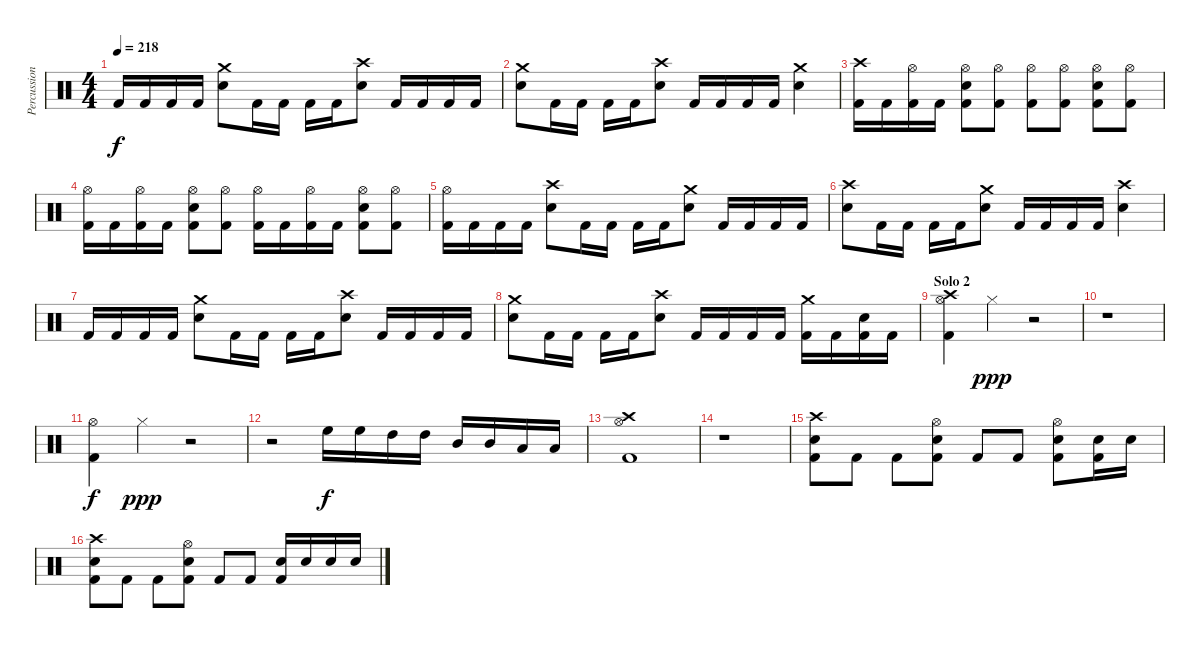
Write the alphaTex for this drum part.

\track ("Percussion" "Percussion") {instrument percussion}
\staff {score}
\articulation defaults
\ts (4 4)
\tempo 218
\clef neutral
\ks c "Kick (hit) 2".16{dy f} "Kick (hit) 2".16 "Kick (hit) 2".16 "Kick (hit) 2".16
("Crash medium (hit)" "Electric Snare (hit)").8 "Kick (hit) 2".16 "Kick (hit) 2".16 "Kick (hit) 2".16 "Kick (hit) 2".16 ("Crash high (hit)" "Electric Snare (hit)").8 "Kick (hit) 2".16 "Kick (hit) 2".16 "Kick (hit) 2".16 "Kick (hit) 2".16 |
("Crash medium (hit)" "Electric Snare (hit)").8 "Kick (hit) 2".16 "Kick (hit) 2".16 "Kick (hit) 2".16 "Kick (hit) 2".16 ("Crash high (hit)" "Electric Snare (hit)").8 "Kick (hit) 2".16 "Kick (hit) 2".16 "Kick (hit) 2".16 "Kick (hit) 2".16 ("Crash medium (hit)" "Electric Snare (hit)").4 |
("Crash high (hit)" "Kick (hit) 2").16 "Kick (hit) 2".16 ("Hi-Hat (open)" "Kick (hit) 2").16 "Kick (hit) 2".16 ("Hi-Hat (open)" "Electric Snare (hit)" "Kick (hit) 2").8 ("Hi-Hat (open)" "Kick (hit) 2").8 ("Hi-Hat (open)" "Kick (hit) 2").8 ("Hi-Hat (open)" "Kick (hit) 2").8 ("Hi-Hat (open)" "Electric Snare (hit)" "Kick (hit) 2").8 ("Hi-Hat (open)" "Kick (hit) 2").8 |
("Hi-Hat (open)" "Kick (hit) 2").16 "Kick (hit) 2".16 ("Hi-Hat (open)" "Kick (hit) 2").16 "Kick (hit) 2".16 ("Hi-Hat (open)" "Electric Snare (hit)" "Kick (hit) 2").8 ("Hi-Hat (open)" "Kick (hit) 2").8 ("Hi-Hat (open)" "Kick (hit) 2").16 "Kick (hit) 2".16 ("Hi-Hat (open)" "Kick (hit) 2").16 "Kick (hit) 2".16 ("Hi-Hat (open)" "Electric Snare (hit)" "Kick (hit) 2").8 ("Hi-Hat (open)" "Kick (hit) 2").8 |
("Hi-Hat (open)" "Kick (hit) 2").16 "Kick (hit) 2".16 "Kick (hit) 2".16 "Kick (hit) 2".16 ("Crash high (hit)" "Electric Snare (hit)").8 "Kick (hit) 2".16 "Kick (hit) 2".16 "Kick (hit) 2".16 "Kick (hit) 2".16 ("Crash medium (hit)" "Electric Snare (hit)").8 "Kick (hit) 2".16 "Kick (hit) 2".16 "Kick (hit) 2".16 "Kick (hit) 2".16 |
("Crash high (hit)" "Electric Snare (hit)").8 "Kick (hit) 2".16 "Kick (hit) 2".16 "Kick (hit) 2".16 "Kick (hit) 2".16 ("Crash medium (hit)" "Electric Snare (hit)").8 "Kick (hit) 2".16 "Kick (hit) 2".16 "Kick (hit) 2".16 "Kick (hit) 2".16 ("Crash high (hit)" "Electric Snare (hit)").4 |
"Kick (hit) 2".16 "Kick (hit) 2".16 "Kick (hit) 2".16 "Kick (hit) 2".16 ("Crash medium (hit)" "Electric Snare (hit)").8 "Kick (hit) 2".16 "Kick (hit) 2".16 "Kick (hit) 2".16 "Kick (hit) 2".16 ("Crash high (hit)" "Electric Snare (hit)").8 "Kick (hit) 2".16 "Kick (hit) 2".16 "Kick (hit) 2".16 "Kick (hit) 2".16 |
("Crash medium (hit)" "Electric Snare (hit)").8 "Kick (hit) 2".16 "Kick (hit) 2".16 "Kick (hit) 2".16 "Kick (hit) 2".16 ("Crash high (hit)" "Electric Snare (hit)").8 "Kick (hit) 2".16 "Kick (hit) 2".16 "Kick (hit) 2".16 "Kick (hit) 2".16 ("Crash medium (hit)" "Kick (hit) 2").16 "Kick (hit) 2".16 ("Electric Snare (hit)" "Kick (hit) 2").16 "Kick (hit) 2".16 |
\section ("" "Solo 2")
("Crash high (hit)" "Hi-Hat (open)" "Kick (hit) 2").4 "Hi-Hat (closed)".4{dy ppp} r.2 |
r.1 |
("Hi-Hat (open)" "Kick (hit) 2").4{dy f} "Hi-Hat (closed)".4{dy ppp} r.2 |
r.2 "High Floor Tom (hit)".16{dy f} "High Floor Tom (hit)".16 "High Tom (hit)".16 "High Tom (hit)".16 "Mid Tom (hit)".16 "Mid Tom (hit)".16 "Low Tom (hit)".16 "Low Tom (hit)".16 |
("Crash high (hit)" "Hi-Hat (open)" "Kick (hit) 2").1 |
r.1 |
("Crash high (hit)" "Electric Snare (hit)" "Kick (hit) 2").8 "Kick (hit) 2".8 "Kick (hit) 2".8 ("Hi-Hat (open)" "Electric Snare (hit)" "Kick (hit) 2").8 "Kick (hit) 2".8 "Kick (hit) 2".8 ("Hi-Hat (open)" "Electric Snare (hit)" "Kick (hit) 2").8 ("Electric Snare (hit)" "Kick (hit) 2").16 "Electric Snare (hit)".16 |
("Crash high (hit)" "Electric Snare (hit)" "Kick (hit) 2").8 "Kick (hit) 2".8 "Kick (hit) 2".8 ("Hi-Hat (open)" "Electric Snare (hit)" "Kick (hit) 2").8 "Kick (hit) 2".8 "Kick (hit) 2".8 ("Electric Snare (hit)" "Kick (hit) 2").16 "Electric Snare (hit)".16 "Electric Snare (hit)".16 "Electric Snare (hit)".16
